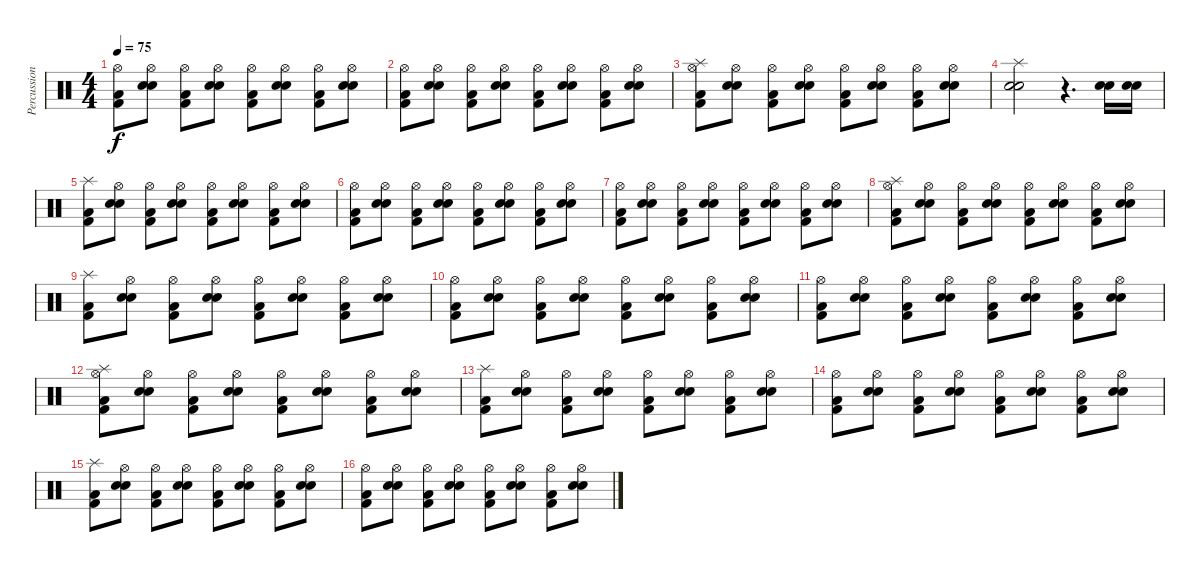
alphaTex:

\track ("Percussions" "Percussion") {instrument percussion}
\staff {score}
\articulation defaults
\ts (4 4)
\tempo 75
\clef neutral
\ks c
("Low Floor Tom (hit)" "Kick (hit) 2" "Hi-Hat (open)").8{dy f} ("Electric Snare (hit)" "Snare (hit) 2" "Hi-Hat (open)").8 ("Low Floor Tom (hit)" "Kick (hit) 2" "Hi-Hat (open)").8 ("Electric Snare (hit)" "Snare (hit) 2" "Hi-Hat (open)").8 ("Low Floor Tom (hit)" "Kick (hit) 2" "Hi-Hat (open)").8 ("Electric Snare (hit)" "Snare (hit) 2" "Hi-Hat (open)").8 ("Low Floor Tom (hit)" "Kick (hit) 2" "Hi-Hat (open)").8 ("Electric Snare (hit)" "Snare (hit) 2" "Hi-Hat (open)").8 |
("Low Floor Tom (hit)" "Kick (hit) 2" "Hi-Hat (open)").8 ("Electric Snare (hit)" "Snare (hit) 2" "Hi-Hat (open)").8 ("Low Floor Tom (hit)" "Kick (hit) 2" "Hi-Hat (open)").8 ("Electric Snare (hit)" "Snare (hit) 2" "Hi-Hat (open)").8 ("Low Floor Tom (hit)" "Kick (hit) 2" "Hi-Hat (open)").8 ("Electric Snare (hit)" "Snare (hit) 2" "Hi-Hat (open)").8 ("Low Floor Tom (hit)" "Kick (hit) 2" "Hi-Hat (open)").8 ("Electric Snare (hit)" "Snare (hit) 2" "Hi-Hat (open)").8 |
("Splash (hit)" "Low Floor Tom (hit)" "Kick (hit) 2" "Hi-Hat (open)").8 ("Electric Snare (hit)" "Snare (hit) 2" "Hi-Hat (open)").8 ("Low Floor Tom (hit)" "Kick (hit) 2" "Hi-Hat (open)").8 ("Electric Snare (hit)" "Snare (hit) 2" "Hi-Hat (open)").8 ("Low Floor Tom (hit)" "Kick (hit) 2" "Hi-Hat (open)").8 ("Electric Snare (hit)" "Snare (hit) 2" "Hi-Hat (open)").8 ("Low Floor Tom (hit)" "Kick (hit) 2" "Hi-Hat (open)").8 ("Electric Snare (hit)" "Snare (hit) 2" "Hi-Hat (open)").8 |
("Splash (hit)" "Electric Snare (hit)" "Snare (hit) 2").2 r.4{d} ("Electric Snare (hit)" "Snare (hit) 2").16 ("Electric Snare (hit)" "Snare (hit) 2").16 |
("Splash (hit)" "Low Floor Tom (hit)" "Kick (hit) 2").8 ("Electric Snare (hit)" "Snare (hit) 2" "Hi-Hat (open)").8 ("Low Floor Tom (hit)" "Kick (hit) 2" "Hi-Hat (open)").8 ("Electric Snare (hit)" "Snare (hit) 2" "Hi-Hat (open)").8 ("Low Floor Tom (hit)" "Kick (hit) 2" "Hi-Hat (open)").8 ("Electric Snare (hit)" "Snare (hit) 2" "Hi-Hat (open)").8 ("Low Floor Tom (hit)" "Kick (hit) 2" "Hi-Hat (open)").8 ("Electric Snare (hit)" "Snare (hit) 2" "Hi-Hat (open)").8 |
("Low Floor Tom (hit)" "Kick (hit) 2" "Hi-Hat (open)").8 ("Electric Snare (hit)" "Snare (hit) 2" "Hi-Hat (open)").8 ("Low Floor Tom (hit)" "Kick (hit) 2" "Hi-Hat (open)").8 ("Electric Snare (hit)" "Snare (hit) 2" "Hi-Hat (open)").8 ("Low Floor Tom (hit)" "Kick (hit) 2" "Hi-Hat (open)").8 ("Electric Snare (hit)" "Snare (hit) 2" "Hi-Hat (open)").8 ("Low Floor Tom (hit)" "Kick (hit) 2" "Hi-Hat (open)").8 ("Electric Snare (hit)" "Snare (hit) 2" "Hi-Hat (open)").8 |
("Low Floor Tom (hit)" "Kick (hit) 2" "Hi-Hat (open)").8 ("Electric Snare (hit)" "Snare (hit) 2" "Hi-Hat (open)").8 ("Low Floor Tom (hit)" "Kick (hit) 2" "Hi-Hat (open)").8 ("Electric Snare (hit)" "Snare (hit) 2" "Hi-Hat (open)").8 ("Low Floor Tom (hit)" "Kick (hit) 2" "Hi-Hat (open)").8 ("Electric Snare (hit)" "Snare (hit) 2" "Hi-Hat (open)").8 ("Low Floor Tom (hit)" "Kick (hit) 2" "Hi-Hat (open)").8 ("Electric Snare (hit)" "Snare (hit) 2" "Hi-Hat (open)").8 |
("Splash (hit)" "Low Floor Tom (hit)" "Kick (hit) 2" "Hi-Hat (open)").8 ("Electric Snare (hit)" "Snare (hit) 2" "Hi-Hat (open)").8 ("Low Floor Tom (hit)" "Kick (hit) 2" "Hi-Hat (open)").8 ("Electric Snare (hit)" "Snare (hit) 2" "Hi-Hat (open)").8 ("Low Floor Tom (hit)" "Kick (hit) 2" "Hi-Hat (open)").8 ("Electric Snare (hit)" "Snare (hit) 2" "Hi-Hat (open)").8 ("Low Floor Tom (hit)" "Kick (hit) 2" "Hi-Hat (open)").8 ("Electric Snare (hit)" "Snare (hit) 2" "Hi-Hat (open)").8 |
("Splash (hit)" "Low Floor Tom (hit)" "Kick (hit) 2").8 ("Electric Snare (hit)" "Snare (hit) 2" "Hi-Hat (open)").8 ("Low Floor Tom (hit)" "Kick (hit) 2" "Hi-Hat (open)").8 ("Electric Snare (hit)" "Snare (hit) 2" "Hi-Hat (open)").8 ("Low Floor Tom (hit)" "Kick (hit) 2" "Hi-Hat (open)").8 ("Electric Snare (hit)" "Snare (hit) 2" "Hi-Hat (open)").8 ("Low Floor Tom (hit)" "Kick (hit) 2" "Hi-Hat (open)").8 ("Electric Snare (hit)" "Snare (hit) 2" "Hi-Hat (open)").8 |
("Low Floor Tom (hit)" "Kick (hit) 2" "Hi-Hat (open)").8 ("Electric Snare (hit)" "Snare (hit) 2" "Hi-Hat (open)").8 ("Low Floor Tom (hit)" "Kick (hit) 2" "Hi-Hat (open)").8 ("Electric Snare (hit)" "Snare (hit) 2" "Hi-Hat (open)").8 ("Low Floor Tom (hit)" "Kick (hit) 2" "Hi-Hat (open)").8 ("Electric Snare (hit)" "Snare (hit) 2" "Hi-Hat (open)").8 ("Low Floor Tom (hit)" "Kick (hit) 2" "Hi-Hat (open)").8 ("Electric Snare (hit)" "Snare (hit) 2" "Hi-Hat (open)").8 |
("Low Floor Tom (hit)" "Kick (hit) 2" "Hi-Hat (open)").8 ("Electric Snare (hit)" "Snare (hit) 2" "Hi-Hat (open)").8 ("Low Floor Tom (hit)" "Kick (hit) 2" "Hi-Hat (open)").8 ("Electric Snare (hit)" "Snare (hit) 2" "Hi-Hat (open)").8 ("Low Floor Tom (hit)" "Kick (hit) 2" "Hi-Hat (open)").8 ("Electric Snare (hit)" "Snare (hit) 2" "Hi-Hat (open)").8 ("Low Floor Tom (hit)" "Kick (hit) 2" "Hi-Hat (open)").8 ("Electric Snare (hit)" "Snare (hit) 2" "Hi-Hat (open)").8 |
("Splash (hit)" "Low Floor Tom (hit)" "Kick (hit) 2" "Hi-Hat (open)").8 ("Electric Snare (hit)" "Snare (hit) 2" "Hi-Hat (open)").8 ("Low Floor Tom (hit)" "Kick (hit) 2" "Hi-Hat (open)").8 ("Electric Snare (hit)" "Snare (hit) 2" "Hi-Hat (open)").8 ("Low Floor Tom (hit)" "Kick (hit) 2" "Hi-Hat (open)").8 ("Electric Snare (hit)" "Snare (hit) 2" "Hi-Hat (open)").8 ("Low Floor Tom (hit)" "Kick (hit) 2" "Hi-Hat (open)").8 ("Electric Snare (hit)" "Snare (hit) 2" "Hi-Hat (open)").8 |
("Splash (hit)" "Low Floor Tom (hit)" "Kick (hit) 2").8 ("Electric Snare (hit)" "Snare (hit) 2" "Hi-Hat (open)").8 ("Low Floor Tom (hit)" "Kick (hit) 2" "Hi-Hat (open)").8 ("Electric Snare (hit)" "Snare (hit) 2" "Hi-Hat (open)").8 ("Low Floor Tom (hit)" "Kick (hit) 2" "Hi-Hat (open)").8 ("Electric Snare (hit)" "Snare (hit) 2" "Hi-Hat (open)").8 ("Low Floor Tom (hit)" "Kick (hit) 2" "Hi-Hat (open)").8 ("Electric Snare (hit)" "Snare (hit) 2" "Hi-Hat (open)").8 |
("Low Floor Tom (hit)" "Kick (hit) 2" "Hi-Hat (open)").8 ("Electric Snare (hit)" "Snare (hit) 2" "Hi-Hat (open)").8 ("Low Floor Tom (hit)" "Kick (hit) 2" "Hi-Hat (open)").8 ("Electric Snare (hit)" "Snare (hit) 2" "Hi-Hat (open)").8 ("Low Floor Tom (hit)" "Kick (hit) 2" "Hi-Hat (open)").8 ("Electric Snare (hit)" "Snare (hit) 2" "Hi-Hat (open)").8 ("Low Floor Tom (hit)" "Kick (hit) 2" "Hi-Hat (open)").8 ("Electric Snare (hit)" "Snare (hit) 2" "Hi-Hat (open)").8 |
("Splash (hit)" "Low Floor Tom (hit)" "Kick (hit) 2").8 ("Electric Snare (hit)" "Snare (hit) 2" "Hi-Hat (open)").8 ("Low Floor Tom (hit)" "Kick (hit) 2" "Hi-Hat (open)").8 ("Electric Snare (hit)" "Snare (hit) 2" "Hi-Hat (open)").8 ("Low Floor Tom (hit)" "Kick (hit) 2" "Hi-Hat (open)").8 ("Electric Snare (hit)" "Snare (hit) 2" "Hi-Hat (open)").8 ("Low Floor Tom (hit)" "Kick (hit) 2" "Hi-Hat (open)").8 ("Electric Snare (hit)" "Snare (hit) 2" "Hi-Hat (open)").8 |
("Low Floor Tom (hit)" "Kick (hit) 2" "Hi-Hat (open)").8 ("Electric Snare (hit)" "Snare (hit) 2" "Hi-Hat (open)").8 ("Low Floor Tom (hit)" "Kick (hit) 2" "Hi-Hat (open)").8 ("Electric Snare (hit)" "Snare (hit) 2" "Hi-Hat (open)").8 ("Low Floor Tom (hit)" "Kick (hit) 2" "Hi-Hat (open)").8 ("Electric Snare (hit)" "Snare (hit) 2" "Hi-Hat (open)").8 ("Low Floor Tom (hit)" "Kick (hit) 2" "Hi-Hat (open)").8 ("Electric Snare (hit)" "Snare (hit) 2" "Hi-Hat (open)").8
